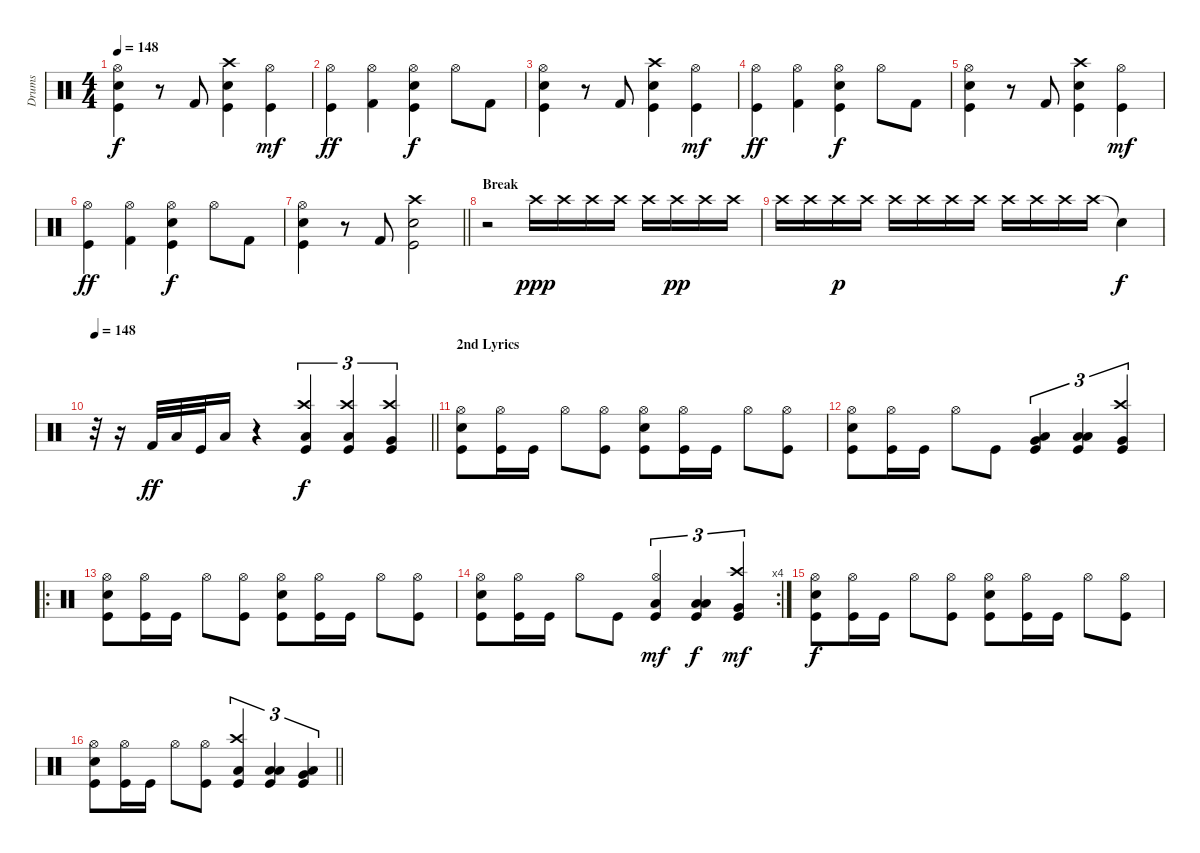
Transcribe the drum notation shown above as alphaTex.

\track ("Drums" "Drums") {instrument percussion}
\staff {score}
\articulation defaults
\ts (4 4)
\tempo 148
\clef neutral
\ks c
("Kick (hit)" "Snare (hit) 2" "Hi-Hat (open)").4{dy f} r.8 "Kick (hit) 2".8 ("Kick (hit)" "Snare (hit) 2" "Crash high (hit)").4 ("Kick (hit)" "Hi-Hat (open)").4{dy mf} |
("Kick (hit)" "Hi-Hat (open)").4{dy ff} ("Kick (hit) 2" "Hi-Hat (open)").4 ("Kick (hit)" "Snare (hit) 2" "Hi-Hat (open)").4{dy f} "Hi-Hat (open)".8 "Kick (hit) 2".8 |
("Kick (hit)" "Snare (hit) 2" "Hi-Hat (open)").4 r.8 "Kick (hit) 2".8 ("Kick (hit)" "Snare (hit) 2" "Crash high (hit)").4 ("Kick (hit)" "Hi-Hat (open)").4{dy mf} |
("Kick (hit)" "Hi-Hat (open)").4{dy ff} ("Kick (hit) 2" "Hi-Hat (open)").4 ("Kick (hit)" "Snare (hit) 2" "Hi-Hat (open)").4{dy f} "Hi-Hat (open)".8 "Kick (hit) 2".8 |
("Kick (hit)" "Snare (hit) 2" "Hi-Hat (open)").4 r.8 "Kick (hit) 2".8 ("Kick (hit)" "Snare (hit) 2" "Crash high (hit)").4 ("Kick (hit)" "Hi-Hat (open)").4{dy mf} |
("Kick (hit)" "Hi-Hat (open)").4{dy ff} ("Kick (hit) 2" "Hi-Hat (open)").4 ("Kick (hit)" "Snare (hit) 2" "Hi-Hat (open)").4{dy f} "Hi-Hat (open)".8 "Kick (hit) 2".8 |
\barLineRight lightlight
("Kick (hit)" "Snare (hit) 2" "Hi-Hat (open)").4 r.8 "Kick (hit) 2".8 ("Kick (hit)" "Snare (hit) 2" "Crash high (hit)").2 |
\section ("" "Break")
r.2 "Crash high (hit)".16{dy ppp} "Crash high (hit)".16 "Crash high (hit)".16 "Crash high (hit)".16 "Crash high (hit)".16 "Crash high (hit)".16{dy pp} "Crash high (hit)".16 "Crash high (hit)".16 |
"Crash high (hit)".16 "Crash high (hit)".16 "Crash high (hit)".16{dy p} "Crash high (hit)".16 "Crash high (hit)".16 "Crash high (hit)".16 "Crash high (hit)".16 "Crash high (hit)".16 "Crash high (hit)".16 "Crash high (hit)".16 "Crash high (hit)".16 "Crash high (hit)".16 "Snare (hit)"{t}.4{dy f} |
\tempo 148
\barLineRight lightlight
r.32 r.16 "Kick (hit) 2".32{dy ff} "Low Floor Tom (hit)".32 "Kick (hit)".32 "Low Floor Tom (hit)".16 r.4 ("Kick (hit)" "Crash high (hit)" "Low Tom (hit)").4{tu (3 2) dy f} ("Kick (hit)" "Crash high (hit)" "Low Tom (hit)").4{tu (3 2)} ("Kick (hit)" "Crash high (hit)" "Very Low Tom (hit)").4{tu (3 2)} |
\section ("" "2nd Lyrics")
("Kick (hit)" "Snare (hit) 2" "Hi-Hat (open)").8 ("Kick (hit)" "Hi-Hat (open)").16 "Kick (hit)".16 "Hi-Hat (open)".8 ("Kick (hit)" "Hi-Hat (open)").8 ("Kick (hit)" "Snare (hit) 2" "Hi-Hat (open)").8 ("Kick (hit)" "Hi-Hat (open)").16 "Kick (hit)".16 "Hi-Hat (open)".8 ("Kick (hit)" "Hi-Hat (open)").8 |
("Kick (hit)" "Snare (hit) 2" "Hi-Hat (open)").8 ("Kick (hit)" "Hi-Hat (open)").16 "Kick (hit)".16 "Hi-Hat (open)".8 "Kick (hit)".8 ("Kick (hit)" "Very Low Tom (hit)" "Low Tom (hit)").4{tu (3 2)} ("Kick (hit)" "Low Floor Tom (hit)" "Low Tom (hit)").4{tu (3 2)} ("Kick (hit)" "Crash high (hit)" "Very Low Tom (hit)").4{tu (3 2)} |
\ro
("Kick (hit)" "Snare (hit) 2" "Hi-Hat (open)").8 ("Kick (hit)" "Hi-Hat (open)").16 "Kick (hit)".16 "Hi-Hat (open)".8 ("Kick (hit)" "Hi-Hat (open)").8 ("Kick (hit)" "Snare (hit) 2" "Hi-Hat (open)").8 ("Kick (hit)" "Hi-Hat (open)").16 "Kick (hit)".16 "Hi-Hat (open)".8 ("Kick (hit)" "Hi-Hat (open)").8 |
\rc 4
("Kick (hit)" "Snare (hit) 2" "Hi-Hat (open)").8 ("Kick (hit)" "Hi-Hat (open)").16 "Kick (hit)".16 "Hi-Hat (open)".8 "Kick (hit)".8 ("Kick (hit)" "Hi-Hat (open)" "Low Tom (hit)").4{tu (3 2) dy mf} ("Kick (hit)" "Low Floor Tom (hit)" "Low Tom (hit)").4{tu (3 2) dy f} ("Kick (hit)" "Crash high (hit)" "Very Low Tom (hit)").4{tu (3 2) dy mf} |
("Kick (hit)" "Snare (hit) 2" "Hi-Hat (open)").8{dy f} ("Kick (hit)" "Hi-Hat (open)").16 "Kick (hit)".16 "Hi-Hat (open)".8 ("Kick (hit)" "Hi-Hat (open)").8 ("Kick (hit)" "Snare (hit) 2" "Hi-Hat (open)").8 ("Kick (hit)" "Hi-Hat (open)").16 "Kick (hit)".16 "Hi-Hat (open)".8 ("Kick (hit)" "Hi-Hat (open)").8 |
\barLineRight lightlight
("Kick (hit)" "Snare (hit) 2" "Hi-Hat (open)").8 ("Kick (hit)" "Hi-Hat (open)").16 "Kick (hit)".16 "Hi-Hat (open)".8 ("Kick (hit)" "Hi-Hat (open)").8 ("Kick (hit)" "Crash high (hit)" "Low Tom (hit)").4{tu (3 2)} ("Kick (hit)" "Low Floor Tom (hit)" "Low Tom (hit)").4{tu (3 2)} ("Kick (hit)" "Low Floor Tom (hit)" "Very Low Tom (hit)").4{tu (3 2)}
